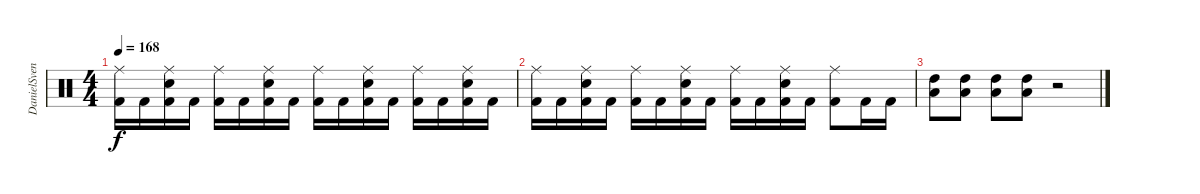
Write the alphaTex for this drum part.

\track ("DanielSvensson" "DanielSven") {instrument percussion}
\staff {score}
\articulation defaults
\ts (4 4)
\tempo 168
\clef neutral
\ks c
("Ride (middle)" "Kick (hit) 2").16{dy f} "Kick (hit) 2".16 ("Ride (middle)" "Electric Snare (hit)" "Kick (hit) 2").16 "Kick (hit) 2".16 ("Ride (middle)" "Kick (hit) 2").16 "Kick (hit) 2".16 ("Ride (middle)" "Electric Snare (hit)" "Kick (hit) 2").16 "Kick (hit) 2".16 ("Ride (middle)" "Kick (hit) 2").16 "Kick (hit) 2".16 ("Ride (middle)" "Electric Snare (hit)" "Kick (hit) 2").16 "Kick (hit) 2".16 ("Ride (middle)" "Kick (hit) 2").16 "Kick (hit) 2".16 ("Ride (middle)" "Electric Snare (hit)" "Kick (hit) 2").16 "Kick (hit) 2".16 |
("Ride (middle)" "Kick (hit) 2").16 "Kick (hit) 2".16 ("Ride (middle)" "Electric Snare (hit)" "Kick (hit) 2").16 "Kick (hit) 2".16 ("Ride (middle)" "Kick (hit) 2").16 "Kick (hit) 2".16 ("Ride (middle)" "Electric Snare (hit)" "Kick (hit) 2").16 "Kick (hit) 2".16 ("Ride (middle)" "Kick (hit) 2").16 "Kick (hit) 2".16 ("Ride (middle)" "Electric Snare (hit)" "Kick (hit) 2").16 "Kick (hit) 2".16 ("Ride (middle)" "Kick (hit) 2").8 "Kick (hit) 2".16 "Kick (hit) 2".16 |
("Low Tom (hit)" "High Tom (hit)").8 ("Low Tom (hit)" "High Tom (hit)").8 ("Low Tom (hit)" "High Tom (hit)").8 ("Low Tom (hit)" "High Tom (hit)").8 r.2
